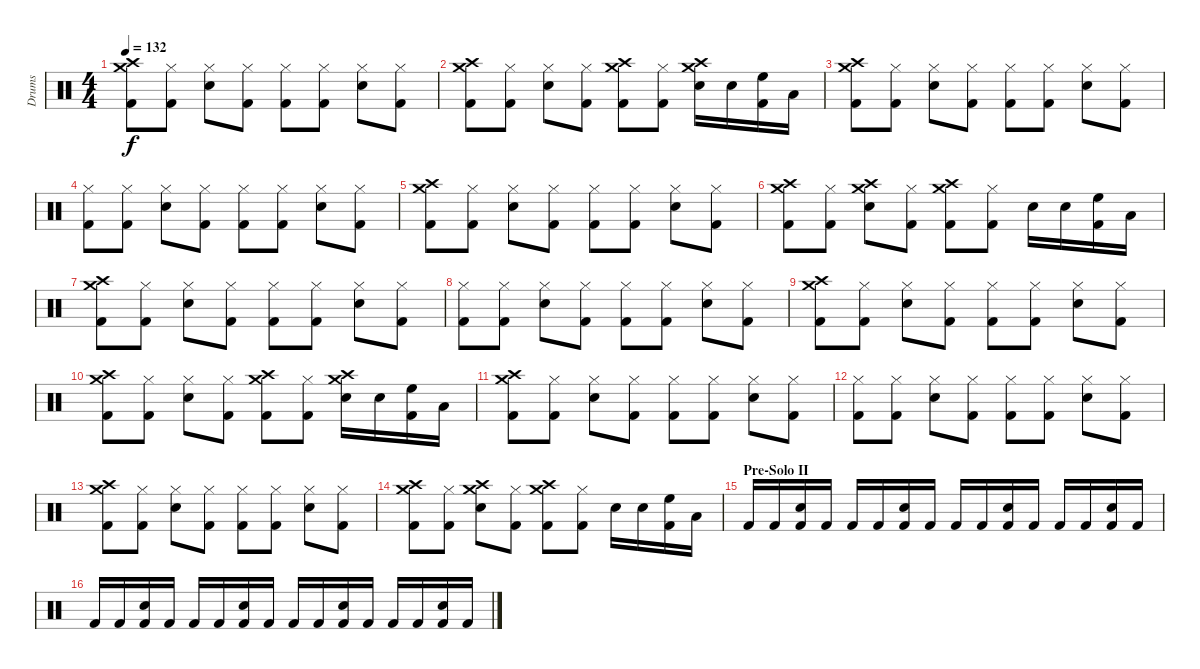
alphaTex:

\track ("Drums" "Drums") {instrument percussion}
\staff {score}
\articulation defaults
\ts (4 4)
\tempo 132
\clef neutral
\ks c
("Crash medium (hit)" "Crash high (hit)" "Kick (hit) 2").8{dy f} ("Hi-Hat (closed)" "Kick (hit) 2").8 ("Hi-Hat (closed)" "Electric Snare (hit)").8 ("Hi-Hat (closed)" "Kick (hit) 2").8 ("Hi-Hat (closed)" "Kick (hit) 2").8 ("Hi-Hat (closed)" "Kick (hit) 2").8 ("Hi-Hat (closed)" "Electric Snare (hit)").8 ("Hi-Hat (closed)" "Kick (hit) 2").8 |
("Crash medium (hit)" "Crash high (hit)" "Kick (hit) 2").8 ("Hi-Hat (closed)" "Kick (hit) 2").8 ("Hi-Hat (closed)" "Electric Snare (hit)").8 ("Hi-Hat (closed)" "Kick (hit) 2").8 ("Crash medium (hit)" "Crash high (hit)" "Kick (hit) 2").8 ("Hi-Hat (closed)" "Kick (hit) 2").8 ("Crash medium (hit)" "Crash high (hit)" "Electric Snare (hit)").16 "Electric Snare (hit)".16 ("High Floor Tom (hit)" "Kick (hit) 2").16 "Low Tom (hit)".16 |
("Crash medium (hit)" "Crash high (hit)" "Kick (hit) 2").8 ("Hi-Hat (closed)" "Kick (hit) 2").8 ("Hi-Hat (closed)" "Electric Snare (hit)").8 ("Hi-Hat (closed)" "Kick (hit) 2").8 ("Hi-Hat (closed)" "Kick (hit) 2").8 ("Hi-Hat (closed)" "Kick (hit) 2").8 ("Hi-Hat (closed)" "Electric Snare (hit)").8 ("Hi-Hat (closed)" "Kick (hit) 2").8 |
("Hi-Hat (closed)" "Kick (hit) 2").8 ("Hi-Hat (closed)" "Kick (hit) 2").8 ("Hi-Hat (closed)" "Electric Snare (hit)").8 ("Hi-Hat (closed)" "Kick (hit) 2").8 ("Hi-Hat (closed)" "Kick (hit) 2").8 ("Hi-Hat (closed)" "Kick (hit) 2").8 ("Hi-Hat (closed)" "Electric Snare (hit)").8 ("Hi-Hat (closed)" "Kick (hit) 2").8 |
("Crash medium (hit)" "Crash high (hit)" "Kick (hit) 2").8 ("Hi-Hat (closed)" "Kick (hit) 2").8 ("Hi-Hat (closed)" "Electric Snare (hit)").8 ("Hi-Hat (closed)" "Kick (hit) 2").8 ("Hi-Hat (closed)" "Kick (hit) 2").8 ("Hi-Hat (closed)" "Kick (hit) 2").8 ("Hi-Hat (closed)" "Electric Snare (hit)").8 ("Hi-Hat (closed)" "Kick (hit) 2").8 |
("Crash medium (hit)" "Crash high (hit)" "Kick (hit) 2").8 ("Hi-Hat (closed)" "Kick (hit) 2").8 ("Crash medium (hit)" "Crash high (hit)" "Electric Snare (hit)").8 ("Hi-Hat (closed)" "Kick (hit) 2").8 ("Crash medium (hit)" "Crash high (hit)" "Kick (hit) 2").8 ("Hi-Hat (closed)" "Kick (hit) 2").8 "Electric Snare (hit)".16 "Electric Snare (hit)".16 ("High Floor Tom (hit)" "Kick (hit) 2").16 "Low Tom (hit)".16 |
("Crash medium (hit)" "Crash high (hit)" "Kick (hit) 2").8 ("Hi-Hat (closed)" "Kick (hit) 2").8 ("Hi-Hat (closed)" "Electric Snare (hit)").8 ("Hi-Hat (closed)" "Kick (hit) 2").8 ("Hi-Hat (closed)" "Kick (hit) 2").8 ("Hi-Hat (closed)" "Kick (hit) 2").8 ("Hi-Hat (closed)" "Electric Snare (hit)").8 ("Hi-Hat (closed)" "Kick (hit) 2").8 |
("Hi-Hat (closed)" "Kick (hit) 2").8 ("Hi-Hat (closed)" "Kick (hit) 2").8 ("Hi-Hat (closed)" "Electric Snare (hit)").8 ("Hi-Hat (closed)" "Kick (hit) 2").8 ("Hi-Hat (closed)" "Kick (hit) 2").8 ("Hi-Hat (closed)" "Kick (hit) 2").8 ("Hi-Hat (closed)" "Electric Snare (hit)").8 ("Hi-Hat (closed)" "Kick (hit) 2").8 |
("Crash medium (hit)" "Crash high (hit)" "Kick (hit) 2").8 ("Hi-Hat (closed)" "Kick (hit) 2").8 ("Hi-Hat (closed)" "Electric Snare (hit)").8 ("Hi-Hat (closed)" "Kick (hit) 2").8 ("Hi-Hat (closed)" "Kick (hit) 2").8 ("Hi-Hat (closed)" "Kick (hit) 2").8 ("Hi-Hat (closed)" "Electric Snare (hit)").8 ("Hi-Hat (closed)" "Kick (hit) 2").8 |
("Crash medium (hit)" "Crash high (hit)" "Kick (hit) 2").8 ("Hi-Hat (closed)" "Kick (hit) 2").8 ("Hi-Hat (closed)" "Electric Snare (hit)").8 ("Hi-Hat (closed)" "Kick (hit) 2").8 ("Crash medium (hit)" "Crash high (hit)" "Kick (hit) 2").8 ("Hi-Hat (closed)" "Kick (hit) 2").8 ("Crash medium (hit)" "Crash high (hit)" "Electric Snare (hit)").16 "Electric Snare (hit)".16 ("High Floor Tom (hit)" "Kick (hit) 2").16 "Low Tom (hit)".16 |
("Crash medium (hit)" "Crash high (hit)" "Kick (hit) 2").8 ("Hi-Hat (closed)" "Kick (hit) 2").8 ("Hi-Hat (closed)" "Electric Snare (hit)").8 ("Hi-Hat (closed)" "Kick (hit) 2").8 ("Hi-Hat (closed)" "Kick (hit) 2").8 ("Hi-Hat (closed)" "Kick (hit) 2").8 ("Hi-Hat (closed)" "Electric Snare (hit)").8 ("Hi-Hat (closed)" "Kick (hit) 2").8 |
("Hi-Hat (closed)" "Kick (hit) 2").8 ("Hi-Hat (closed)" "Kick (hit) 2").8 ("Hi-Hat (closed)" "Electric Snare (hit)").8 ("Hi-Hat (closed)" "Kick (hit) 2").8 ("Hi-Hat (closed)" "Kick (hit) 2").8 ("Hi-Hat (closed)" "Kick (hit) 2").8 ("Hi-Hat (closed)" "Electric Snare (hit)").8 ("Hi-Hat (closed)" "Kick (hit) 2").8 |
("Crash medium (hit)" "Crash high (hit)" "Kick (hit) 2").8 ("Hi-Hat (closed)" "Kick (hit) 2").8 ("Hi-Hat (closed)" "Electric Snare (hit)").8 ("Hi-Hat (closed)" "Kick (hit) 2").8 ("Hi-Hat (closed)" "Kick (hit) 2").8 ("Hi-Hat (closed)" "Kick (hit) 2").8 ("Hi-Hat (closed)" "Electric Snare (hit)").8 ("Hi-Hat (closed)" "Kick (hit) 2").8 |
("Crash medium (hit)" "Crash high (hit)" "Kick (hit) 2").8 ("Hi-Hat (closed)" "Kick (hit) 2").8 ("Crash medium (hit)" "Crash high (hit)" "Electric Snare (hit)").8 ("Hi-Hat (closed)" "Kick (hit) 2").8 ("Crash medium (hit)" "Crash high (hit)" "Kick (hit) 2").8 ("Hi-Hat (closed)" "Kick (hit) 2").8 "Electric Snare (hit)".16 "Electric Snare (hit)".16 ("High Floor Tom (hit)" "Kick (hit) 2").16 "Low Tom (hit)".16 |
\section ("" "Pre-Solo II")
"Kick (hit) 2".16 "Kick (hit) 2".16 ("Electric Snare (hit)" "Kick (hit) 2").16 "Kick (hit) 2".16 "Kick (hit) 2".16 "Kick (hit) 2".16 ("Electric Snare (hit)" "Kick (hit) 2").16 "Kick (hit) 2".16 "Kick (hit) 2".16 "Kick (hit) 2".16 ("Electric Snare (hit)" "Kick (hit) 2").16 "Kick (hit) 2".16 "Kick (hit) 2".16 "Kick (hit) 2".16 ("Electric Snare (hit)" "Kick (hit) 2").16 "Kick (hit) 2".16 |
"Kick (hit) 2".16 "Kick (hit) 2".16 ("Electric Snare (hit)" "Kick (hit) 2").16 "Kick (hit) 2".16 "Kick (hit) 2".16 "Kick (hit) 2".16 ("Electric Snare (hit)" "Kick (hit) 2").16 "Kick (hit) 2".16 "Kick (hit) 2".16 "Kick (hit) 2".16 ("Electric Snare (hit)" "Kick (hit) 2").16 "Kick (hit) 2".16 "Kick (hit) 2".16 "Kick (hit) 2".16 ("Electric Snare (hit)" "Kick (hit) 2").16 "Kick (hit) 2".16
